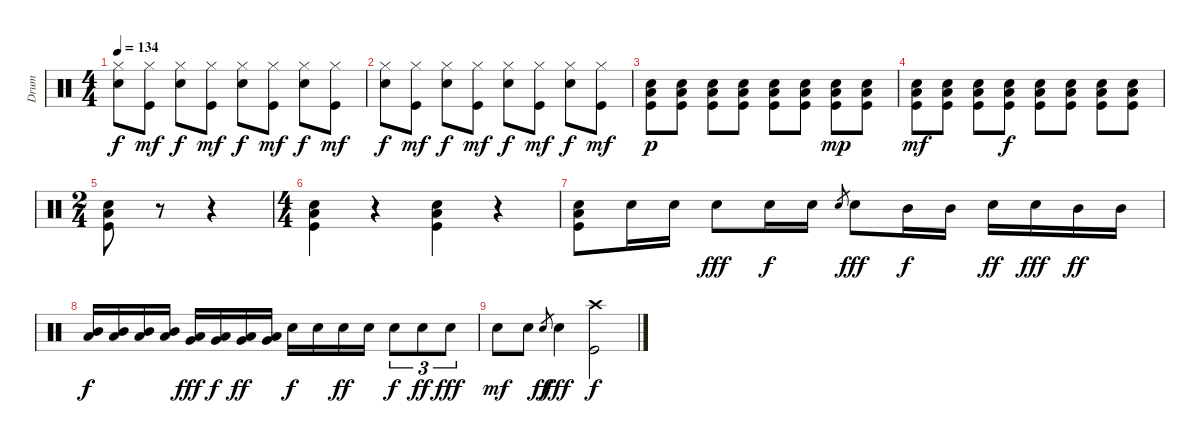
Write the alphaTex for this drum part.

\track ("Drum" "Drum") {instrument percussion}
\staff {score}
\articulation defaults
\ts (4 4)
\tempo 134
\clef neutral
\ks c
("Hi-Hat (closed)" "Electric Snare (hit)").8{dy f} ("Hi-Hat (closed)" "Kick (hit)").8{dy mf} ("Hi-Hat (closed)" "Electric Snare (hit)").8{dy f} ("Hi-Hat (closed)" "Kick (hit)").8{dy mf} ("Hi-Hat (closed)" "Electric Snare (hit)").8{dy f} ("Hi-Hat (closed)" "Kick (hit)").8{dy mf} ("Hi-Hat (closed)" "Electric Snare (hit)").8{dy f} ("Hi-Hat (closed)" "Kick (hit)").8{dy mf} |
("Hi-Hat (closed)" "Electric Snare (hit)").8{dy f} ("Hi-Hat (closed)" "Kick (hit)").8{dy mf} ("Hi-Hat (closed)" "Electric Snare (hit)").8{dy f} ("Hi-Hat (closed)" "Kick (hit)").8{dy mf} ("Hi-Hat (closed)" "Electric Snare (hit)").8{dy f} ("Hi-Hat (closed)" "Kick (hit)").8{dy mf} ("Hi-Hat (closed)" "Electric Snare (hit)").8{dy f} ("Hi-Hat (closed)" "Kick (hit)").8{dy mf} |
("Low Floor Tom (hit)" "Electric Snare (hit)" "Kick (hit)").8{dy p} ("Low Floor Tom (hit)" "Electric Snare (hit)" "Kick (hit)").8 ("Low Floor Tom (hit)" "Electric Snare (hit)" "Kick (hit)").8 ("Low Floor Tom (hit)" "Electric Snare (hit)" "Kick (hit)").8 ("Low Floor Tom (hit)" "Electric Snare (hit)" "Kick (hit)").8 ("Low Floor Tom (hit)" "Electric Snare (hit)" "Kick (hit)").8 ("Low Floor Tom (hit)" "Electric Snare (hit)" "Kick (hit)").8{dy mp} ("Low Floor Tom (hit)" "Electric Snare (hit)" "Kick (hit)").8 |
("Low Floor Tom (hit)" "Electric Snare (hit)" "Kick (hit)").8{dy mf} ("Low Floor Tom (hit)" "Electric Snare (hit)" "Kick (hit)").8 ("Low Floor Tom (hit)" "Electric Snare (hit)" "Kick (hit)").8 ("Low Floor Tom (hit)" "Electric Snare (hit)" "Kick (hit)").8{dy f} ("Low Floor Tom (hit)" "Electric Snare (hit)" "Kick (hit)").8 ("Low Floor Tom (hit)" "Electric Snare (hit)" "Kick (hit)").8 ("Low Floor Tom (hit)" "Electric Snare (hit)" "Kick (hit)").8 ("Low Floor Tom (hit)" "Electric Snare (hit)" "Kick (hit)").8 |
\ts (2 4)
("Low Floor Tom (hit)" "Electric Snare (hit)" "Kick (hit)").8 r.8 r.4 |
\ts (4 4)
("Low Floor Tom (hit)" "Electric Snare (hit)" "Kick (hit)").4 r.4 ("Low Floor Tom (hit)" "Electric Snare (hit)" "Kick (hit)").4 r.4 |
("Low Floor Tom (hit)" "Electric Snare (hit)" "Kick (hit)").8 "Electric Snare (hit)".16 "Electric Snare (hit)".16 "Electric Snare (hit)".8{dy fff} "Electric Snare (hit)".16{dy f} "Electric Snare (hit)".16 "Electric Snare (hit)".8{gr} "Electric Snare (hit)".8{dy fff} "Mid Tom (hit)".16{dy f} "Mid Tom (hit)".16 "Electric Snare (hit)".16{dy ff} "Electric Snare (hit)".16{dy fff} "Mid Tom (hit)".16{dy ff} "Mid Tom (hit)".16 |
("Mid Tom (hit)" "Low Tom (hit)").16{dy f} ("Mid Tom (hit)" "Low Tom (hit)").16 ("Mid Tom (hit)" "Low Tom (hit)").16 ("Mid Tom (hit)" "Low Tom (hit)").16 ("Low Tom (hit)" "Very Low Tom (hit)").16{dy fff} ("Low Tom (hit)" "Very Low Tom (hit)").16{dy f} ("Low Tom (hit)" "Very Low Tom (hit)").16{dy ff} ("Low Tom (hit)" "Very Low Tom (hit)").16 "Electric Snare (hit)".16{dy f} "Electric Snare (hit)".16 "Electric Snare (hit)".16{dy ff} "Electric Snare (hit)".16 "Electric Snare (hit)".8{tu (3 2) dy f} "Electric Snare (hit)".8{tu (3 2) dy ff} "Electric Snare (hit)".8{tu (3 2) dy fff} |
"Electric Snare (hit)".8{dy mf} "Electric Snare (hit)".8 "Electric Snare (hit)".8{gr dy ff} "Electric Snare (hit)".4{dy fff} ("Crash high (hit)" "Kick (hit)").2{dy f}
